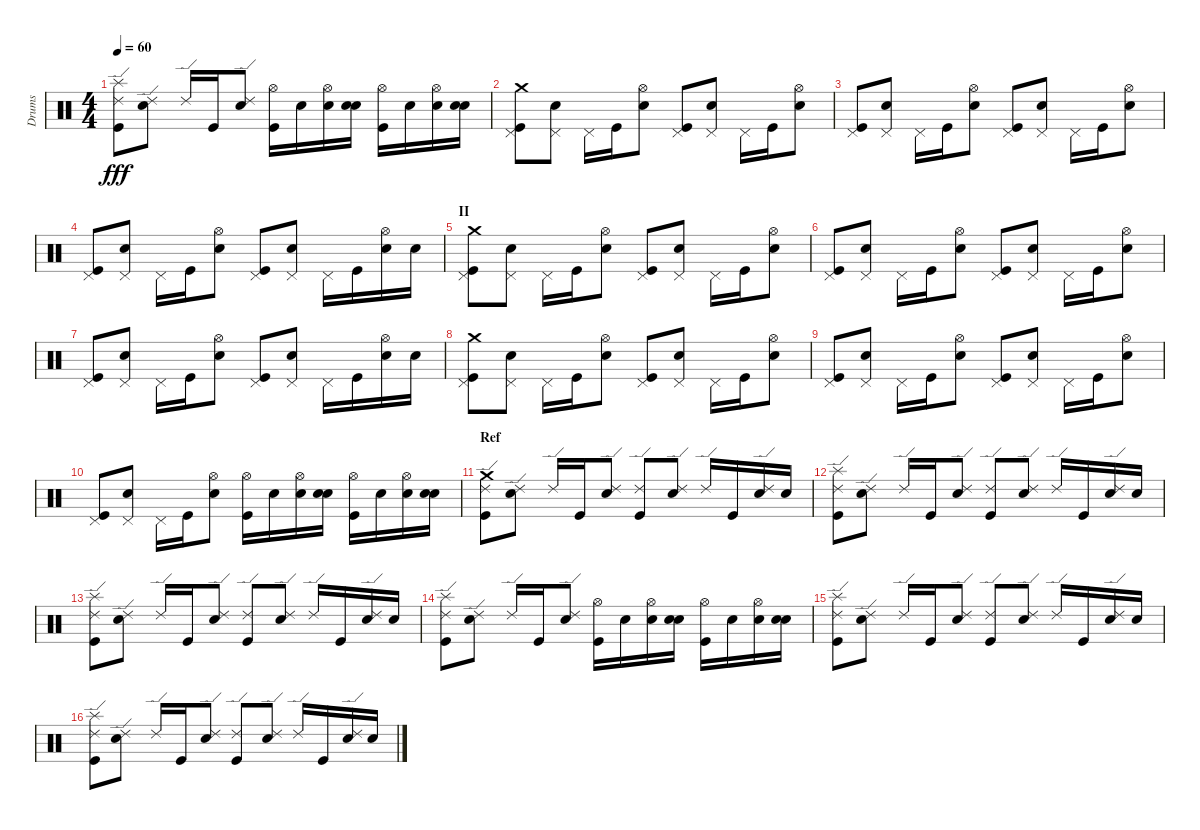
\track ("Drums" "Drums") {instrument percussion}
\staff {score}
\articulation defaults
\ts (4 4)
\tempo 60
\clef neutral
\ks c
("Ride (edge) 2" "Kick (hit)" "Splash (hit)").8{dy fff} ("Ride (edge) 2" "Snare (hit) 2").8 "Ride (edge) 2".16 "Kick (hit)".16 ("Ride (edge) 2" "Snare (hit) 2").8 ("Hi-Hat (open)" "Kick (hit)").16 "Snare (hit) 2".16 ("Hi-Hat (open)" "Snare (hit) 2").16 ("Snare (hit) 2" "Snare (hit) 2").16 ("Hi-Hat (open)" "Kick (hit)").16 "Snare (hit) 2".16 ("Hi-Hat (open)" "Snare (hit) 2").16 ("Snare (hit) 2" "Snare (hit) 2").16 |
("Pedal Hi-Hat (hit)" "Kick (hit)" "Crash medium (hit)").8 ("Pedal Hi-Hat (hit)" "Snare (hit) 2").8 "Pedal Hi-Hat (hit)".16 "Kick (hit)".16 ("Hi-Hat (open)" "Snare (hit) 2").8 ("Pedal Hi-Hat (hit)" "Kick (hit)").8 ("Pedal Hi-Hat (hit)" "Snare (hit) 2").8 "Pedal Hi-Hat (hit)".16 "Kick (hit)".16 ("Hi-Hat (open)" "Snare (hit) 2").8 |
("Pedal Hi-Hat (hit)" "Kick (hit)").8 ("Pedal Hi-Hat (hit)" "Snare (hit) 2").8 "Pedal Hi-Hat (hit)".16 "Kick (hit)".16 ("Hi-Hat (open)" "Snare (hit) 2").8 ("Pedal Hi-Hat (hit)" "Kick (hit)").8 ("Pedal Hi-Hat (hit)" "Snare (hit) 2").8 "Pedal Hi-Hat (hit)".16 "Kick (hit)".16 ("Hi-Hat (open)" "Snare (hit) 2").8 |
("Pedal Hi-Hat (hit)" "Kick (hit)").8 ("Pedal Hi-Hat (hit)" "Snare (hit) 2").8 "Pedal Hi-Hat (hit)".16 "Kick (hit)".16 ("Hi-Hat (open)" "Snare (hit) 2").8 ("Pedal Hi-Hat (hit)" "Kick (hit)").8 ("Pedal Hi-Hat (hit)" "Snare (hit) 2").8 "Pedal Hi-Hat (hit)".16 "Kick (hit)".16 ("Hi-Hat (open)" "Snare (hit) 2").16 "Snare (hit) 2".16 |
\section ("" "II")
("Pedal Hi-Hat (hit)" "Kick (hit)" "Crash medium (hit)").8 ("Pedal Hi-Hat (hit)" "Snare (hit) 2").8 "Pedal Hi-Hat (hit)".16 "Kick (hit)".16 ("Hi-Hat (open)" "Snare (hit) 2").8 ("Pedal Hi-Hat (hit)" "Kick (hit)").8 ("Pedal Hi-Hat (hit)" "Snare (hit) 2").8 "Pedal Hi-Hat (hit)".16 "Kick (hit)".16 ("Hi-Hat (open)" "Snare (hit) 2").8 |
("Pedal Hi-Hat (hit)" "Kick (hit)").8 ("Pedal Hi-Hat (hit)" "Snare (hit) 2").8 "Pedal Hi-Hat (hit)".16 "Kick (hit)".16 ("Hi-Hat (open)" "Snare (hit) 2").8 ("Pedal Hi-Hat (hit)" "Kick (hit)").8 ("Pedal Hi-Hat (hit)" "Snare (hit) 2").8 "Pedal Hi-Hat (hit)".16 "Kick (hit)".16 ("Hi-Hat (open)" "Snare (hit) 2").8 |
("Pedal Hi-Hat (hit)" "Kick (hit)").8 ("Pedal Hi-Hat (hit)" "Snare (hit) 2").8 "Pedal Hi-Hat (hit)".16 "Kick (hit)".16 ("Hi-Hat (open)" "Snare (hit) 2").8 ("Pedal Hi-Hat (hit)" "Kick (hit)").8 ("Pedal Hi-Hat (hit)" "Snare (hit) 2").8 "Pedal Hi-Hat (hit)".16 "Kick (hit)".16 ("Hi-Hat (open)" "Snare (hit) 2").16 "Snare (hit) 2".16 |
("Pedal Hi-Hat (hit)" "Kick (hit)" "Crash medium (hit)").8 ("Pedal Hi-Hat (hit)" "Snare (hit) 2").8 "Pedal Hi-Hat (hit)".16 "Kick (hit)".16 ("Hi-Hat (open)" "Snare (hit) 2").8 ("Pedal Hi-Hat (hit)" "Kick (hit)").8 ("Pedal Hi-Hat (hit)" "Snare (hit) 2").8 "Pedal Hi-Hat (hit)".16 "Kick (hit)".16 ("Hi-Hat (open)" "Snare (hit) 2").8 |
("Pedal Hi-Hat (hit)" "Kick (hit)").8 ("Pedal Hi-Hat (hit)" "Snare (hit) 2").8 "Pedal Hi-Hat (hit)".16 "Kick (hit)".16 ("Hi-Hat (open)" "Snare (hit) 2").8 ("Pedal Hi-Hat (hit)" "Kick (hit)").8 ("Pedal Hi-Hat (hit)" "Snare (hit) 2").8 "Pedal Hi-Hat (hit)".16 "Kick (hit)".16 ("Hi-Hat (open)" "Snare (hit) 2").8 |
("Pedal Hi-Hat (hit)" "Kick (hit)").8 ("Pedal Hi-Hat (hit)" "Snare (hit) 2").8 "Pedal Hi-Hat (hit)".16 "Kick (hit)".16 ("Hi-Hat (open)" "Snare (hit) 2").8 ("Hi-Hat (open)" "Kick (hit)").16 "Snare (hit) 2".16 ("Hi-Hat (open)" "Snare (hit) 2").16 ("Snare (hit) 2" "Snare (hit) 2").16 ("Hi-Hat (open)" "Kick (hit)").16 "Snare (hit) 2".16 ("Hi-Hat (open)" "Snare (hit) 2").16 ("Snare (hit) 2" "Snare (hit) 2").16 |
\section ("" "Ref")
("Ride (edge) 2" "Kick (hit)" "Crash medium (hit)").8 ("Ride (edge) 2" "Snare (hit) 2").8 "Ride (edge) 2".16 "Kick (hit)".16 ("Ride (edge) 2" "Snare (hit) 2").8 ("Ride (edge) 2" "Kick (hit)").8 ("Ride (edge) 2" "Snare (hit) 2").8 "Ride (edge) 2".16 "Kick (hit)".16 ("Ride (edge) 2" "Snare (hit) 2").16 "Snare (hit) 2".16 |
("Ride (edge) 2" "Kick (hit)" "Splash (hit)").8 ("Ride (edge) 2" "Snare (hit) 2").8 "Ride (edge) 2".16 "Kick (hit)".16 ("Ride (edge) 2" "Snare (hit) 2").8 ("Ride (edge) 2" "Kick (hit)").8 ("Ride (edge) 2" "Snare (hit) 2").8 "Ride (edge) 2".16 "Kick (hit)".16 ("Ride (edge) 2" "Snare (hit) 2").16 "Snare (hit) 2".16 |
("Ride (edge) 2" "Kick (hit)" "Splash (hit)").8 ("Ride (edge) 2" "Snare (hit) 2").8 "Ride (edge) 2".16 "Kick (hit)".16 ("Ride (edge) 2" "Snare (hit) 2").8 ("Ride (edge) 2" "Kick (hit)").8 ("Ride (edge) 2" "Snare (hit) 2").8 "Ride (edge) 2".16 "Kick (hit)".16 ("Ride (edge) 2" "Snare (hit) 2").16 "Snare (hit) 2".16 |
("Ride (edge) 2" "Kick (hit)" "Splash (hit)").8 ("Ride (edge) 2" "Snare (hit) 2").8 "Ride (edge) 2".16 "Kick (hit)".16 ("Ride (edge) 2" "Snare (hit) 2").8 ("Hi-Hat (open)" "Kick (hit)").16 "Snare (hit) 2".16 ("Hi-Hat (open)" "Snare (hit) 2").16 ("Snare (hit) 2" "Snare (hit) 2").16 ("Hi-Hat (open)" "Kick (hit)").16 "Snare (hit) 2".16 ("Hi-Hat (open)" "Snare (hit) 2").16 ("Snare (hit) 2" "Snare (hit) 2").16 |
("Ride (edge) 2" "Kick (hit)" "Splash (hit)").8 ("Ride (edge) 2" "Snare (hit) 2").8 "Ride (edge) 2".16 "Kick (hit)".16 ("Ride (edge) 2" "Snare (hit) 2").8 ("Ride (edge) 2" "Kick (hit)").8 ("Ride (edge) 2" "Snare (hit) 2").8 "Ride (edge) 2".16 "Kick (hit)".16 ("Ride (edge) 2" "Snare (hit) 2").16 "Snare (hit) 2".16 |
("Ride (edge) 2" "Kick (hit)" "Splash (hit)").8 ("Ride (edge) 2" "Snare (hit) 2").8 "Ride (edge) 2".16 "Kick (hit)".16 ("Ride (edge) 2" "Snare (hit) 2").8 ("Ride (edge) 2" "Kick (hit)").8 ("Ride (edge) 2" "Snare (hit) 2").8 "Ride (edge) 2".16 "Kick (hit)".16 ("Ride (edge) 2" "Snare (hit) 2").16 "Snare (hit) 2".16
